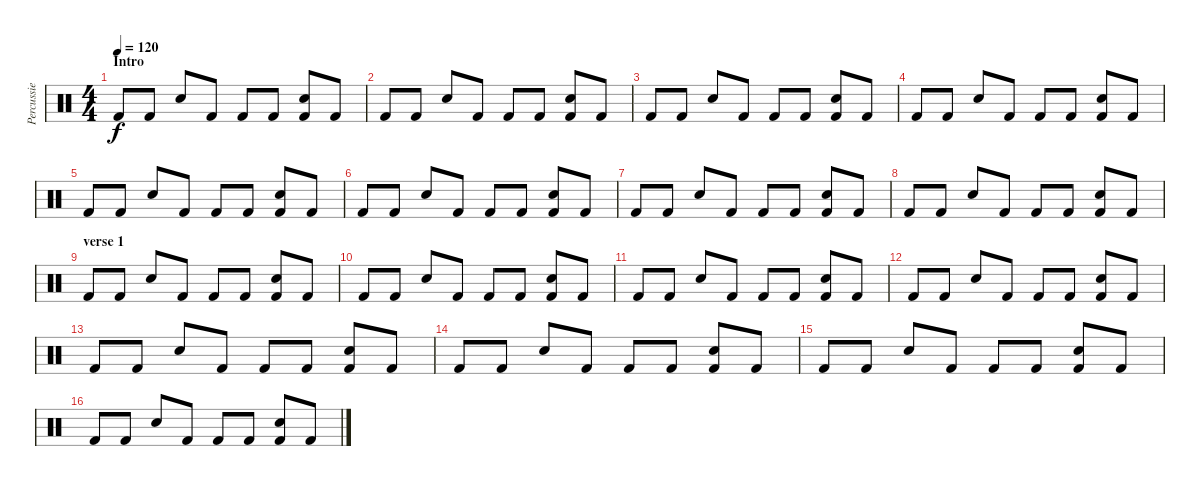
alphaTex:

\track ("Percussie" "Percussie") {instrument percussion}
\staff {score}
\articulation defaults
\ts (4 4)
\section ("" "Intro")
\tempo 120
\clef neutral
\ks c "Kick (hit) 2".8{dy f} "Kick (hit) 2".8 "Snare (hit) 2".8 "Kick (hit) 2".8 "Kick (hit) 2".8 "Kick (hit) 2".8
("Snare (hit) 2" "Kick (hit) 2").8 "Kick (hit) 2".8 |
"Kick (hit) 2".8 "Kick (hit) 2".8 "Snare (hit) 2".8 "Kick (hit) 2".8 "Kick (hit) 2".8 "Kick (hit) 2".8 ("Snare (hit) 2" "Kick (hit) 2").8 "Kick (hit) 2".8 |
"Kick (hit) 2".8 "Kick (hit) 2".8 "Snare (hit) 2".8 "Kick (hit) 2".8 "Kick (hit) 2".8 "Kick (hit) 2".8 ("Snare (hit) 2" "Kick (hit) 2").8 "Kick (hit) 2".8 |
"Kick (hit) 2".8 "Kick (hit) 2".8 "Snare (hit) 2".8 "Kick (hit) 2".8 "Kick (hit) 2".8 "Kick (hit) 2".8 ("Snare (hit) 2" "Kick (hit) 2").8 "Kick (hit) 2".8 |
"Kick (hit) 2".8 "Kick (hit) 2".8 "Snare (hit) 2".8 "Kick (hit) 2".8 "Kick (hit) 2".8 "Kick (hit) 2".8 ("Snare (hit) 2" "Kick (hit) 2").8 "Kick (hit) 2".8 |
"Kick (hit) 2".8 "Kick (hit) 2".8 "Snare (hit) 2".8 "Kick (hit) 2".8 "Kick (hit) 2".8 "Kick (hit) 2".8 ("Snare (hit) 2" "Kick (hit) 2").8 "Kick (hit) 2".8 |
"Kick (hit) 2".8 "Kick (hit) 2".8 "Snare (hit) 2".8 "Kick (hit) 2".8 "Kick (hit) 2".8 "Kick (hit) 2".8 ("Snare (hit) 2" "Kick (hit) 2").8 "Kick (hit) 2".8 |
"Kick (hit) 2".8 "Kick (hit) 2".8 "Snare (hit) 2".8 "Kick (hit) 2".8 "Kick (hit) 2".8 "Kick (hit) 2".8 ("Snare (hit) 2" "Kick (hit) 2").8 "Kick (hit) 2".8 |
\section ("" "verse 1")
"Kick (hit) 2".8 "Kick (hit) 2".8 "Snare (hit) 2".8 "Kick (hit) 2".8 "Kick (hit) 2".8 "Kick (hit) 2".8 ("Snare (hit) 2" "Kick (hit) 2").8 "Kick (hit) 2".8 |
"Kick (hit) 2".8 "Kick (hit) 2".8 "Snare (hit) 2".8 "Kick (hit) 2".8 "Kick (hit) 2".8 "Kick (hit) 2".8 ("Snare (hit) 2" "Kick (hit) 2").8 "Kick (hit) 2".8 |
"Kick (hit) 2".8 "Kick (hit) 2".8 "Snare (hit) 2".8 "Kick (hit) 2".8 "Kick (hit) 2".8 "Kick (hit) 2".8 ("Snare (hit) 2" "Kick (hit) 2").8 "Kick (hit) 2".8 |
"Kick (hit) 2".8 "Kick (hit) 2".8 "Snare (hit) 2".8 "Kick (hit) 2".8 "Kick (hit) 2".8 "Kick (hit) 2".8 ("Snare (hit) 2" "Kick (hit) 2").8 "Kick (hit) 2".8 |
"Kick (hit) 2".8 "Kick (hit) 2".8 "Snare (hit) 2".8 "Kick (hit) 2".8 "Kick (hit) 2".8 "Kick (hit) 2".8 ("Snare (hit) 2" "Kick (hit) 2").8 "Kick (hit) 2".8 |
"Kick (hit) 2".8 "Kick (hit) 2".8 "Snare (hit) 2".8 "Kick (hit) 2".8 "Kick (hit) 2".8 "Kick (hit) 2".8 ("Snare (hit) 2" "Kick (hit) 2").8 "Kick (hit) 2".8 |
"Kick (hit) 2".8 "Kick (hit) 2".8 "Snare (hit) 2".8 "Kick (hit) 2".8 "Kick (hit) 2".8 "Kick (hit) 2".8 ("Snare (hit) 2" "Kick (hit) 2").8 "Kick (hit) 2".8 |
"Kick (hit) 2".8 "Kick (hit) 2".8 "Snare (hit) 2".8 "Kick (hit) 2".8 "Kick (hit) 2".8 "Kick (hit) 2".8 ("Snare (hit) 2" "Kick (hit) 2").8 "Kick (hit) 2".8
